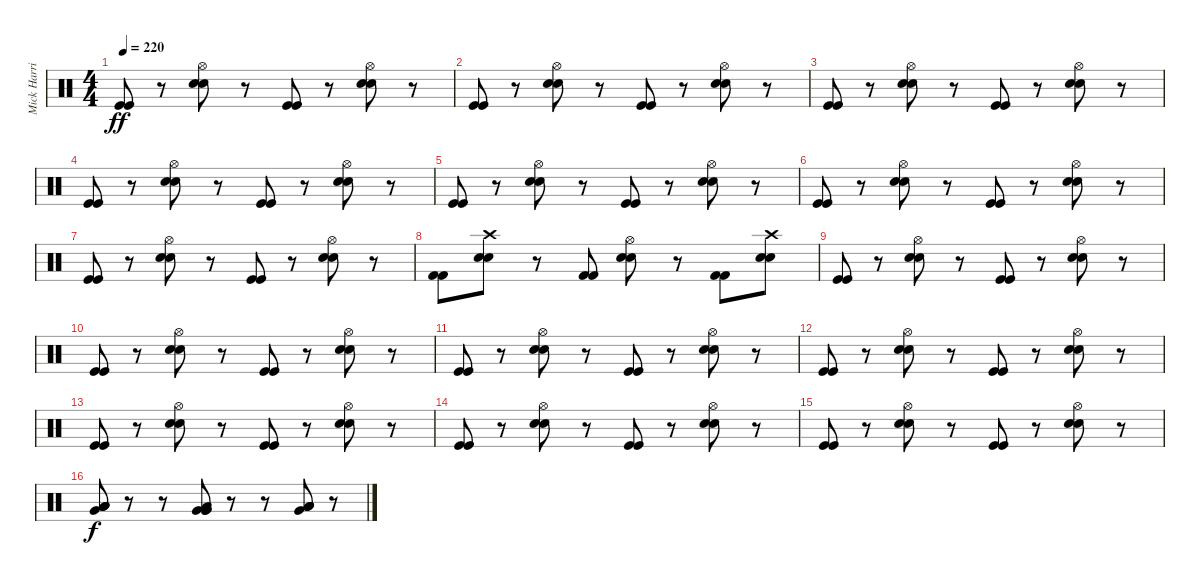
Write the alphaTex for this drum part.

\track ("Mick Harris" "Mick Harri") {instrument percussion}
\staff {score}
\articulation defaults
\ts (4 4)
\tempo 220
\clef neutral
\ks c
("Kick (hit)" "Kick (hit)").8{dy ff} r.8 ("Hi-Hat (open)" "Snare (hit) 2" "Snare (hit) 2").8 r.8 ("Kick (hit)" "Kick (hit)").8 r.8 ("Hi-Hat (open)" "Snare (hit) 2" "Snare (hit) 2").8 r.8 |
("Kick (hit)" "Kick (hit)").8 r.8 ("Hi-Hat (open)" "Snare (hit) 2" "Snare (hit) 2").8 r.8 ("Kick (hit)" "Kick (hit)").8 r.8 ("Hi-Hat (open)" "Snare (hit) 2" "Snare (hit) 2").8 r.8 |
("Kick (hit)" "Kick (hit)").8 r.8 ("Hi-Hat (open)" "Snare (hit) 2" "Snare (hit) 2").8 r.8 ("Kick (hit)" "Kick (hit)").8 r.8 ("Hi-Hat (open)" "Snare (hit) 2" "Snare (hit) 2").8 r.8 |
("Kick (hit)" "Kick (hit)").8 r.8 ("Hi-Hat (open)" "Snare (hit) 2" "Snare (hit) 2").8 r.8 ("Kick (hit)" "Kick (hit)").8 r.8 ("Hi-Hat (open)" "Snare (hit) 2" "Snare (hit) 2").8 r.8 |
("Kick (hit)" "Kick (hit)").8 r.8 ("Hi-Hat (open)" "Snare (hit) 2" "Snare (hit) 2").8 r.8 ("Kick (hit)" "Kick (hit)").8 r.8 ("Hi-Hat (open)" "Snare (hit) 2" "Snare (hit) 2").8 r.8 |
("Kick (hit)" "Kick (hit)").8 r.8 ("Hi-Hat (open)" "Snare (hit) 2" "Snare (hit) 2").8 r.8 ("Kick (hit)" "Kick (hit)").8 r.8 ("Hi-Hat (open)" "Snare (hit) 2" "Snare (hit) 2").8 r.8 |
("Kick (hit)" "Kick (hit)").8 r.8 ("Hi-Hat (open)" "Snare (hit) 2" "Snare (hit) 2").8 r.8 ("Kick (hit)" "Kick (hit)").8 r.8 ("Hi-Hat (open)" "Snare (hit) 2" "Snare (hit) 2").8 r.8 |
("Kick (hit) 2" "Kick (hit) 2").8 ("Crash high (hit)" "Snare (hit) 2" "Snare (hit) 2").8 r.8 ("Kick (hit) 2" "Kick (hit) 2").8 ("Hi-Hat (open)" "Snare (hit) 2" "Snare (hit) 2").8 r.8 ("Kick (hit) 2" "Kick (hit) 2").8 ("Crash high (hit)" "Snare (hit) 2" "Snare (hit) 2").8 |
("Kick (hit)" "Kick (hit)").8 r.8 ("Hi-Hat (open)" "Snare (hit) 2" "Snare (hit) 2").8 r.8 ("Kick (hit)" "Kick (hit)").8 r.8 ("Hi-Hat (open)" "Snare (hit) 2" "Snare (hit) 2").8 r.8 |
("Kick (hit)" "Kick (hit)").8 r.8 ("Hi-Hat (open)" "Snare (hit) 2" "Snare (hit) 2").8 r.8 ("Kick (hit)" "Kick (hit)").8 r.8 ("Hi-Hat (open)" "Snare (hit) 2" "Snare (hit) 2").8 r.8 |
("Kick (hit)" "Kick (hit)").8 r.8 ("Hi-Hat (open)" "Snare (hit) 2" "Snare (hit) 2").8 r.8 ("Kick (hit)" "Kick (hit)").8 r.8 ("Hi-Hat (open)" "Snare (hit) 2" "Snare (hit) 2").8 r.8 |
("Kick (hit)" "Kick (hit)").8 r.8 ("Hi-Hat (open)" "Snare (hit) 2" "Snare (hit) 2").8 r.8 ("Kick (hit)" "Kick (hit)").8 r.8 ("Hi-Hat (open)" "Snare (hit) 2" "Snare (hit) 2").8 r.8 |
("Kick (hit)" "Kick (hit)").8 r.8 ("Hi-Hat (open)" "Snare (hit) 2" "Snare (hit) 2").8 r.8 ("Kick (hit)" "Kick (hit)").8 r.8 ("Hi-Hat (open)" "Snare (hit) 2" "Snare (hit) 2").8 r.8 |
("Kick (hit)" "Kick (hit)").8 r.8 ("Hi-Hat (open)" "Snare (hit) 2" "Snare (hit) 2").8 r.8 ("Kick (hit)" "Kick (hit)").8 r.8 ("Hi-Hat (open)" "Snare (hit) 2" "Snare (hit) 2").8 r.8 |
("Kick (hit)" "Kick (hit)").8 r.8 ("Hi-Hat (open)" "Snare (hit) 2" "Snare (hit) 2").8 r.8 ("Kick (hit)" "Kick (hit)").8 r.8 ("Hi-Hat (open)" "Snare (hit) 2" "Snare (hit) 2").8 r.8 |
("Low Floor Tom (hit)" "Low Tom (hit)" "Low Tom (hit)" "Very Low Tom (hit)").8{dy f volume 16} r.8 r.8 ("Low Floor Tom (hit)" "Very Low Tom (hit)" "Very Low Tom (hit)" "Very Low Tom (hit)").8{volume 16} r.8 r.8 ("Low Floor Tom (hit)" "Low Tom (hit)" "Low Tom (hit)" "Very Low Tom (hit)").8{volume 16} r.8
